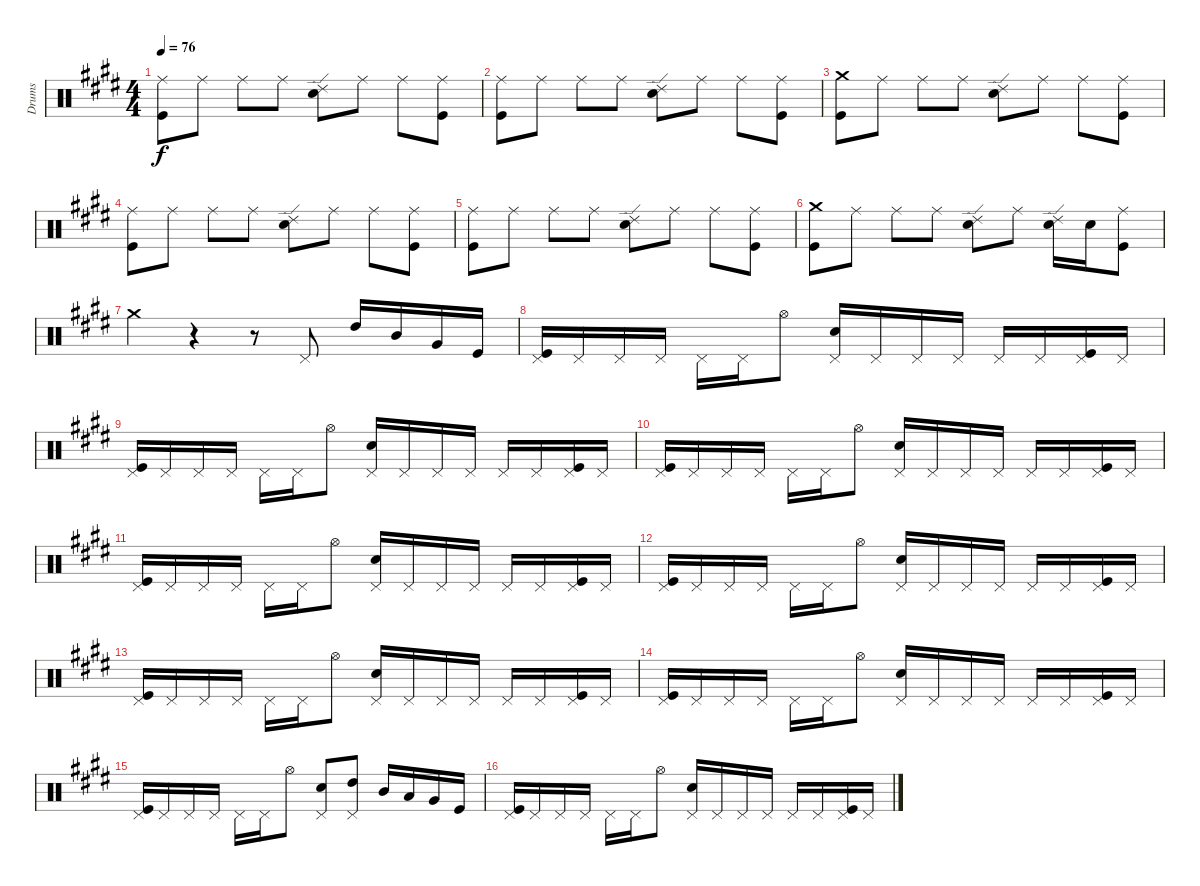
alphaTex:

\track ("Drums" "Drums") {instrument percussion}
\staff {score}
\articulation defaults
\ts (4 4)
\tempo 76
\clef neutral
\ks c#minor
("Ride (middle)" "Kick (hit)").8{dy f} "Ride (middle)".8 "Ride (middle)".8 "Ride (middle)".8 ("Snare (hit) 2" "Ride (edge) 2").8 "Ride (middle)".8 "Ride (middle)".8 ("Kick (hit)" "Ride (middle)").8 |
("Ride (middle)" "Kick (hit)").8 "Ride (middle)".8 "Ride (middle)".8 "Ride (middle)".8 ("Snare (hit) 2" "Ride (edge) 2").8 "Ride (middle)".8 "Ride (middle)".8 ("Kick (hit)" "Ride (middle)").8 |
("Crash medium (hit)" "Kick (hit)").8 "Ride (middle)".8 "Ride (middle)".8 "Ride (middle)".8 ("Snare (hit) 2" "Ride (edge) 2").8 "Ride (middle)".8 "Ride (middle)".8 ("Kick (hit)" "Ride (middle)").8 |
("Ride (middle)" "Kick (hit)").8 "Ride (middle)".8 "Ride (middle)".8 "Ride (middle)".8 ("Snare (hit) 2" "Ride (edge) 2").8 "Ride (middle)".8 "Ride (middle)".8 ("Kick (hit)" "Ride (middle)").8 |
("Ride (middle)" "Kick (hit)").8 "Ride (middle)".8 "Ride (middle)".8 "Ride (middle)".8 ("Snare (hit) 2" "Ride (edge) 2").8 "Ride (middle)".8 "Ride (middle)".8 ("Kick (hit)" "Ride (middle)").8 |
("Crash medium (hit)" "Kick (hit)").8 "Ride (middle)".8 "Ride (middle)".8 "Ride (middle)".8 ("Snare (hit) 2" "Ride (edge) 2").8 "Ride (middle)".8 ("Snare (hit) 2" "Ride (edge) 2").16 "Snare (hit) 2".16 ("Kick (hit)" "Ride (middle)").8 |
"Crash medium (hit)".4 r.4 r.8 "Pedal Hi-Hat (hit)".8 "High Tom (hit)".16 "Mid Tom (hit)".16 "Very Low Tom (hit)".16 "Kick (hit)".16 |
("Pedal Hi-Hat (hit)" "Kick (hit)").16 "Pedal Hi-Hat (hit)".16 "Pedal Hi-Hat (hit)".16 "Pedal Hi-Hat (hit)".16 "Pedal Hi-Hat (hit)".16 "Pedal Hi-Hat (hit)".16 "Hi-Hat (open)".8 ("Snare (hit) 2" "Pedal Hi-Hat (hit)").16 "Pedal Hi-Hat (hit)".16 "Pedal Hi-Hat (hit)".16 "Pedal Hi-Hat (hit)".16 "Pedal Hi-Hat (hit)".16 "Pedal Hi-Hat (hit)".16 ("Pedal Hi-Hat (hit)" "Kick (hit)").16 "Pedal Hi-Hat (hit)".16 |
("Pedal Hi-Hat (hit)" "Kick (hit)").16 "Pedal Hi-Hat (hit)".16 "Pedal Hi-Hat (hit)".16 "Pedal Hi-Hat (hit)".16 "Pedal Hi-Hat (hit)".16 "Pedal Hi-Hat (hit)".16 "Hi-Hat (open)".8 ("Snare (hit) 2" "Pedal Hi-Hat (hit)").16 "Pedal Hi-Hat (hit)".16 "Pedal Hi-Hat (hit)".16 "Pedal Hi-Hat (hit)".16 "Pedal Hi-Hat (hit)".16 "Pedal Hi-Hat (hit)".16 ("Pedal Hi-Hat (hit)" "Kick (hit)").16 "Pedal Hi-Hat (hit)".16 |
("Pedal Hi-Hat (hit)" "Kick (hit)").16 "Pedal Hi-Hat (hit)".16 "Pedal Hi-Hat (hit)".16 "Pedal Hi-Hat (hit)".16 "Pedal Hi-Hat (hit)".16 "Pedal Hi-Hat (hit)".16 "Hi-Hat (open)".8 ("Snare (hit) 2" "Pedal Hi-Hat (hit)").16 "Pedal Hi-Hat (hit)".16 "Pedal Hi-Hat (hit)".16 "Pedal Hi-Hat (hit)".16 "Pedal Hi-Hat (hit)".16 "Pedal Hi-Hat (hit)".16 ("Pedal Hi-Hat (hit)" "Kick (hit)").16 "Pedal Hi-Hat (hit)".16 |
("Pedal Hi-Hat (hit)" "Kick (hit)").16 "Pedal Hi-Hat (hit)".16 "Pedal Hi-Hat (hit)".16 "Pedal Hi-Hat (hit)".16 "Pedal Hi-Hat (hit)".16 "Pedal Hi-Hat (hit)".16 "Hi-Hat (open)".8 ("Snare (hit) 2" "Pedal Hi-Hat (hit)").16 "Pedal Hi-Hat (hit)".16 "Pedal Hi-Hat (hit)".16 "Pedal Hi-Hat (hit)".16 "Pedal Hi-Hat (hit)".16 "Pedal Hi-Hat (hit)".16 ("Pedal Hi-Hat (hit)" "Kick (hit)").16 "Pedal Hi-Hat (hit)".16 |
("Pedal Hi-Hat (hit)" "Kick (hit)").16 "Pedal Hi-Hat (hit)".16 "Pedal Hi-Hat (hit)".16 "Pedal Hi-Hat (hit)".16 "Pedal Hi-Hat (hit)".16 "Pedal Hi-Hat (hit)".16 "Hi-Hat (open)".8 ("Snare (hit) 2" "Pedal Hi-Hat (hit)").16 "Pedal Hi-Hat (hit)".16 "Pedal Hi-Hat (hit)".16 "Pedal Hi-Hat (hit)".16 "Pedal Hi-Hat (hit)".16 "Pedal Hi-Hat (hit)".16 ("Pedal Hi-Hat (hit)" "Kick (hit)").16 "Pedal Hi-Hat (hit)".16 |
("Pedal Hi-Hat (hit)" "Kick (hit)").16 "Pedal Hi-Hat (hit)".16 "Pedal Hi-Hat (hit)".16 "Pedal Hi-Hat (hit)".16 "Pedal Hi-Hat (hit)".16 "Pedal Hi-Hat (hit)".16 "Hi-Hat (open)".8 ("Snare (hit) 2" "Pedal Hi-Hat (hit)").16 "Pedal Hi-Hat (hit)".16 "Pedal Hi-Hat (hit)".16 "Pedal Hi-Hat (hit)".16 "Pedal Hi-Hat (hit)".16 "Pedal Hi-Hat (hit)".16 ("Pedal Hi-Hat (hit)" "Kick (hit)").16 "Pedal Hi-Hat (hit)".16 |
("Pedal Hi-Hat (hit)" "Kick (hit)").16 "Pedal Hi-Hat (hit)".16 "Pedal Hi-Hat (hit)".16 "Pedal Hi-Hat (hit)".16 "Pedal Hi-Hat (hit)".16 "Pedal Hi-Hat (hit)".16 "Hi-Hat (open)".8 ("Snare (hit) 2" "Pedal Hi-Hat (hit)").16 "Pedal Hi-Hat (hit)".16 "Pedal Hi-Hat (hit)".16 "Pedal Hi-Hat (hit)".16 "Pedal Hi-Hat (hit)".16 "Pedal Hi-Hat (hit)".16 ("Pedal Hi-Hat (hit)" "Kick (hit)").16 "Pedal Hi-Hat (hit)".16 |
("Pedal Hi-Hat (hit)" "Kick (hit)").16 "Pedal Hi-Hat (hit)".16 "Pedal Hi-Hat (hit)".16 "Pedal Hi-Hat (hit)".16 "Pedal Hi-Hat (hit)".16 "Pedal Hi-Hat (hit)".16 "Hi-Hat (open)".8 ("Snare (hit) 2" "Pedal Hi-Hat (hit)").8 ("High Tom (hit)" "Pedal Hi-Hat (hit)").8 "Mid Tom (hit)".16 "Low Tom (hit)".16 "Very Low Tom (hit)".16 "Kick (hit)".16 |
("Pedal Hi-Hat (hit)" "Kick (hit)").16 "Pedal Hi-Hat (hit)".16 "Pedal Hi-Hat (hit)".16 "Pedal Hi-Hat (hit)".16 "Pedal Hi-Hat (hit)".16 "Pedal Hi-Hat (hit)".16 "Hi-Hat (open)".8 ("Snare (hit) 2" "Pedal Hi-Hat (hit)").16 "Pedal Hi-Hat (hit)".16 "Pedal Hi-Hat (hit)".16 "Pedal Hi-Hat (hit)".16 "Pedal Hi-Hat (hit)".16 "Pedal Hi-Hat (hit)".16 ("Pedal Hi-Hat (hit)" "Kick (hit)").16 "Pedal Hi-Hat (hit)".16
